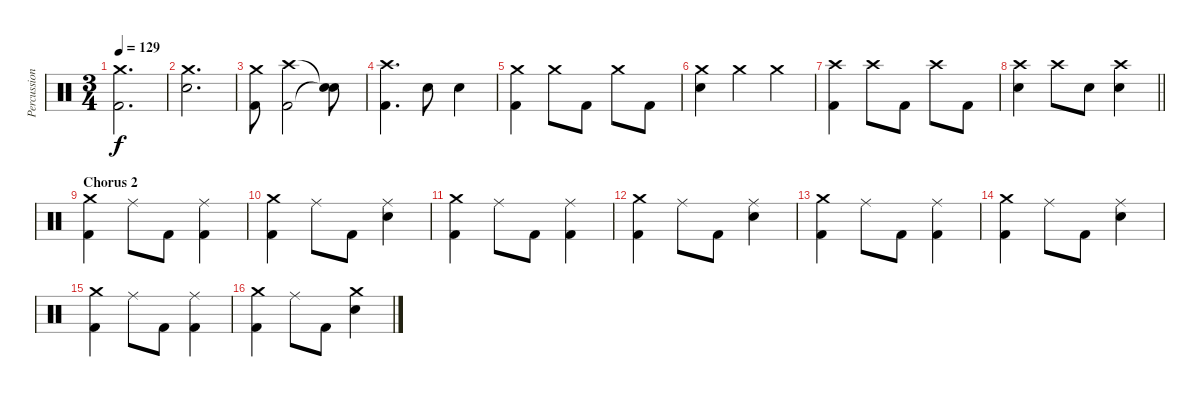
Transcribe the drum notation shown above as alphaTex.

\track ("Percussion" "Percussion") {instrument percussion}
\staff {score}
\articulation defaults
\ts (3 4)
\tempo 129
\clef neutral
\ks c
("Crash medium (hit)" "Kick (hit) 2").2{d dy f} |
("Crash medium (hit)" "Electric Snare (hit)").2{d} |
("Crash medium (hit)" "Kick (hit) 2").8 ("Crash high (hit)" "Kick (hit) 2").2 ("Snare (hit)"{t} "Snare (hit)"{t}).8 |
("Crash high (hit)" "Kick (hit) 2").4{d} "Electric Snare (hit)".8 "Electric Snare (hit)".4 |
("Crash medium (hit)" "Kick (hit) 2").4 "Crash medium (hit)".8 "Kick (hit) 2".8 "Crash medium (hit)".8 "Kick (hit) 2".8 |
("Crash medium (hit)" "Electric Snare (hit)").4 "Crash medium (hit)".4 "Crash medium (hit)".4 |
("Crash high (hit)" "Kick (hit) 2").4 "Crash high (hit)".8 "Kick (hit) 2".8 "Crash high (hit)".8 "Kick (hit) 2".8 |
\barLineRight lightlight
("Crash high (hit)" "Electric Snare (hit)").4 "Crash high (hit)".8 "Electric Snare (hit)".8 ("Crash high (hit)" "Electric Snare (hit)").4 |
\section ("" "Chorus 2")
("Crash medium (hit)" "Kick (hit) 2").4 "Ride (middle)".8 "Kick (hit) 2".8 ("Ride (middle)" "Kick (hit) 2").4 |
("Crash medium (hit)" "Kick (hit) 2").4 "Ride (middle)".8 "Kick (hit) 2".8 ("Ride (middle)" "Electric Snare (hit)").4 |
("Crash medium (hit)" "Kick (hit) 2").4 "Ride (middle)".8 "Kick (hit) 2".8 ("Ride (middle)" "Kick (hit) 2").4 |
("Crash medium (hit)" "Kick (hit) 2").4 "Ride (middle)".8 "Kick (hit) 2".8 ("Ride (middle)" "Electric Snare (hit)").4 |
("Crash medium (hit)" "Kick (hit) 2").4 "Ride (middle)".8 "Kick (hit) 2".8 ("Ride (middle)" "Kick (hit) 2").4 |
("Crash medium (hit)" "Kick (hit) 2").4 "Ride (middle)".8 "Kick (hit) 2".8 ("Ride (middle)" "Electric Snare (hit)").4 |
("Crash medium (hit)" "Kick (hit) 2").4 "Ride (middle)".8 "Kick (hit) 2".8 ("Ride (middle)" "Kick (hit) 2").4 |
("Crash medium (hit)" "Kick (hit) 2").4 "Ride (middle)".8 "Kick (hit) 2".8 ("Crash medium (hit)" "Electric Snare (hit)").4
